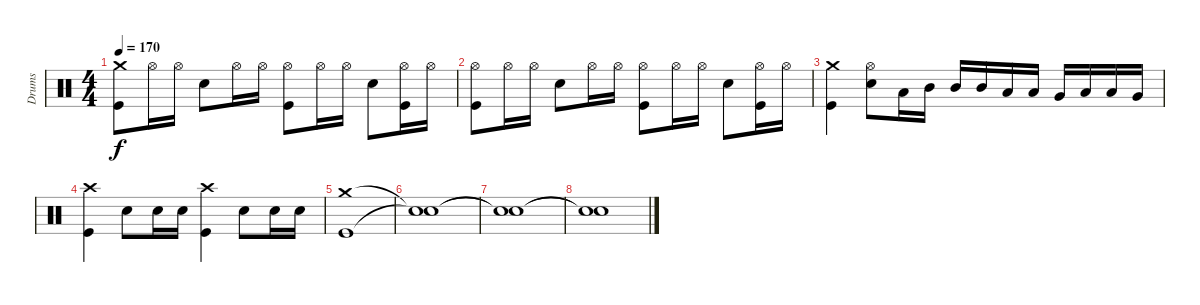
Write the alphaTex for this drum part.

\track ("Drums" "Drums") {instrument percussion}
\staff {score}
\articulation defaults
\ts (4 4)
\tempo 170
\clef neutral
\ks c
("Crash medium (hit)" "Kick (hit)").8{dy f} "Hi-Hat (open)".16 "Hi-Hat (open)".16 "Snare (hit) 2".8 "Hi-Hat (open)".16 "Hi-Hat (open)".16 ("Hi-Hat (open)" "Kick (hit)").8 "Hi-Hat (open)".16 "Hi-Hat (open)".16 "Snare (hit) 2".8 ("Hi-Hat (open)" "Kick (hit)").16 "Hi-Hat (open)".16 |
("Hi-Hat (open)" "Kick (hit)").8 "Hi-Hat (open)".16 "Hi-Hat (open)".16 "Snare (hit) 2".8 "Hi-Hat (open)".16 "Hi-Hat (open)".16 ("Hi-Hat (open)" "Kick (hit)").8 "Hi-Hat (open)".16 "Hi-Hat (open)".16 "Snare (hit) 2".8 ("Hi-Hat (open)" "Kick (hit)").16 "Hi-Hat (open)".16 |
("Crash medium (hit)" "Kick (hit)").4 ("Hi-Hat (open)" "Snare (hit) 2").8 "Low Tom (hit)".16 "Mid Tom (hit)".16 "Mid Tom (hit)".16 "Mid Tom (hit)".16 "Low Tom (hit)".16 "Low Tom (hit)".16 "Very Low Tom (hit)".16 "Low Tom (hit)".16 "Low Tom (hit)".16 "Very Low Tom (hit)".16 |
("Crash high (hit)" "Kick (hit)").4 "Snare (hit) 2".8 "Snare (hit) 2".16 "Snare (hit) 2".16 ("Crash high (hit)" "Kick (hit)").4 "Snare (hit) 2".8 "Snare (hit) 2".16 "Snare (hit) 2".16 |
("Crash medium (hit)" "Kick (hit)").1 |
("Snare (hit)"{t} "Snare (hit)"{t}).1 |
("Snare (hit)"{t} "Snare (hit)"{t}).1 |
("Snare (hit)"{t} "Snare (hit)"{t}).1
